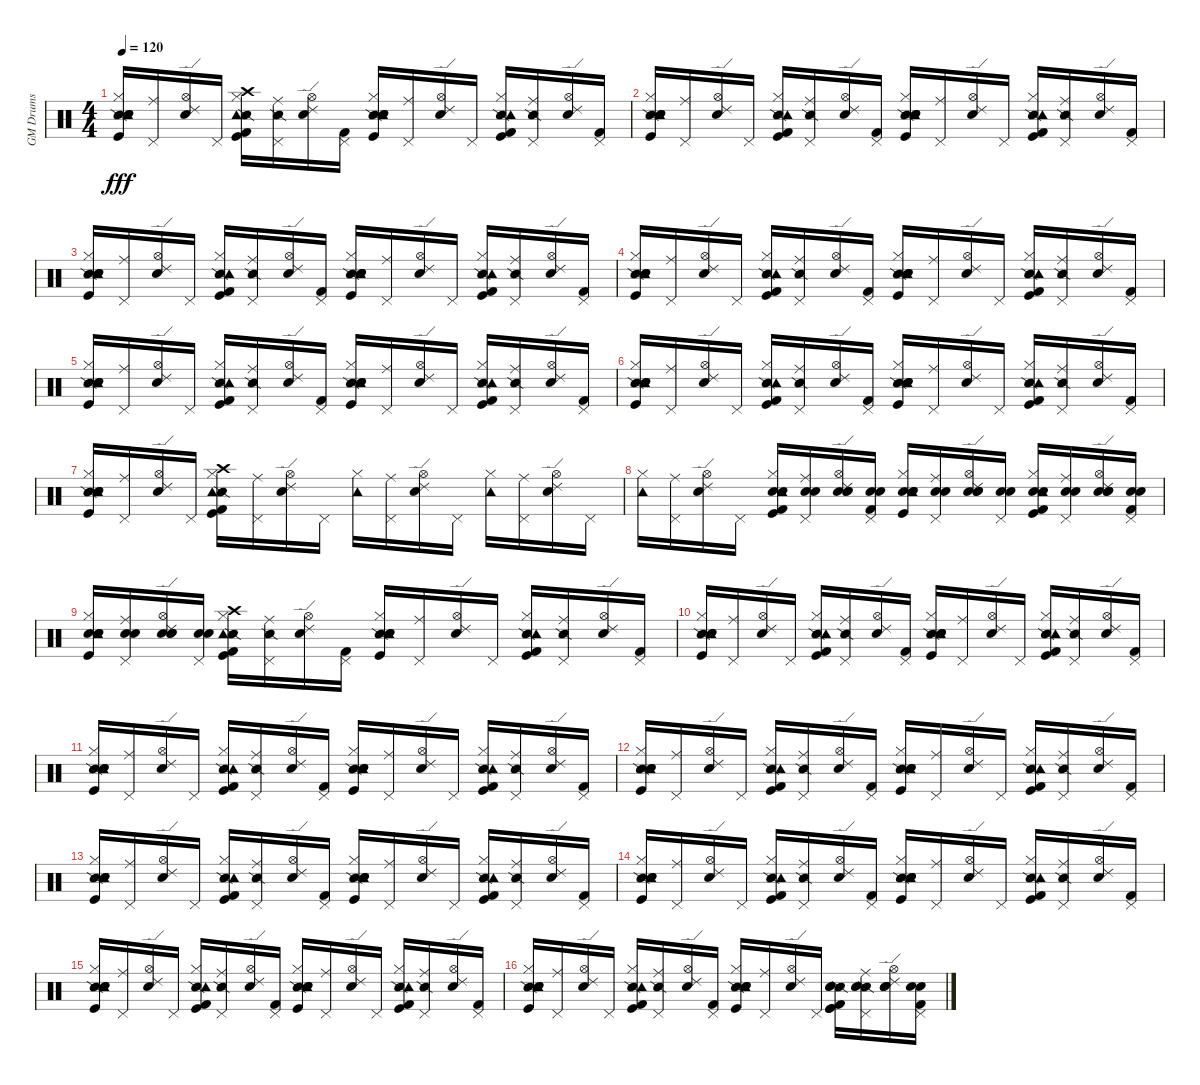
\track ("GM Drums" "GM Drums") {instrument percussion}
\staff {score}
\articulation defaults
\ts (4 4)
\tempo 120
\clef neutral
\ks c
("Snare (side stick) 2" "Kick (hit)" "Snare (hit) 2" "Hand Clap (hit)" "Hi-Hat (closed)" "Tambourine (hit)").16{dy fff} ("Pedal Hi-Hat (hit)" "Ride (middle)").16 ("Metronome (bell)" "Hi-Hat (open)" "Ride (edge) 2").16 "Pedal Hi-Hat (hit)".16 ("Snare (side stick) 2" "Kick (hit)" "Kick (hit) 2" "Hi-Hat (closed)" "Crash high (hit)" "Tambourine (hit)").16 ("Snare (side stick) 2" "Pedal Hi-Hat (hit)" "Ride (middle)").16 ("Metronome (bell)" "Hi-Hat (open)" "Ride (edge) 2").16 ("Kick (hit) 2" "Pedal Hi-Hat (hit)").16 ("Snare (side stick) 2" "Kick (hit)" "Snare (hit) 2" "Hand Clap (hit)" "Hi-Hat (closed)" "Tambourine (hit)").16 ("Pedal Hi-Hat (hit)" "Ride (middle)").16 ("Metronome (bell)" "Hi-Hat (open)" "Ride (edge) 2").16 "Pedal Hi-Hat (hit)".16 ("Snare (side stick) 2" "Kick (hit)" "Kick (hit) 2" "Hi-Hat (closed)" "Tambourine (hit)").16 ("Snare (side stick) 2" "Pedal Hi-Hat (hit)" "Ride (middle)").16 ("Metronome (bell)" "Hi-Hat (open)" "Ride (edge) 2").16 ("Kick (hit) 2" "Pedal Hi-Hat (hit)").16 |
("Snare (side stick) 2" "Kick (hit)" "Snare (hit) 2" "Hand Clap (hit)" "Hi-Hat (closed)" "Tambourine (hit)").16 ("Pedal Hi-Hat (hit)" "Ride (middle)").16 ("Metronome (bell)" "Hi-Hat (open)" "Ride (edge) 2").16 "Pedal Hi-Hat (hit)".16 ("Snare (side stick) 2" "Kick (hit)" "Kick (hit) 2" "Hi-Hat (closed)" "Tambourine (hit)").16 ("Snare (side stick) 2" "Pedal Hi-Hat (hit)" "Ride (middle)").16 ("Metronome (bell)" "Hi-Hat (open)" "Ride (edge) 2").16 ("Kick (hit) 2" "Pedal Hi-Hat (hit)").16 ("Snare (side stick) 2" "Kick (hit)" "Snare (hit) 2" "Hand Clap (hit)" "Hi-Hat (closed)" "Tambourine (hit)").16 ("Pedal Hi-Hat (hit)" "Ride (middle)").16 ("Metronome (bell)" "Hi-Hat (open)" "Ride (edge) 2").16 "Pedal Hi-Hat (hit)".16 ("Snare (side stick) 2" "Kick (hit)" "Kick (hit) 2" "Hi-Hat (closed)" "Tambourine (hit)").16 ("Snare (side stick) 2" "Pedal Hi-Hat (hit)" "Ride (middle)").16 ("Metronome (bell)" "Hi-Hat (open)" "Ride (edge) 2").16 ("Kick (hit) 2" "Pedal Hi-Hat (hit)").16 |
("Snare (side stick) 2" "Kick (hit)" "Snare (hit) 2" "Hand Clap (hit)" "Hi-Hat (closed)" "Tambourine (hit)").16 ("Pedal Hi-Hat (hit)" "Ride (middle)").16 ("Metronome (bell)" "Hi-Hat (open)" "Ride (edge) 2").16 "Pedal Hi-Hat (hit)".16 ("Snare (side stick) 2" "Kick (hit)" "Kick (hit) 2" "Hi-Hat (closed)" "Tambourine (hit)").16 ("Snare (side stick) 2" "Pedal Hi-Hat (hit)" "Ride (middle)").16 ("Metronome (bell)" "Hi-Hat (open)" "Ride (edge) 2").16 ("Kick (hit) 2" "Pedal Hi-Hat (hit)").16 ("Snare (side stick) 2" "Kick (hit)" "Snare (hit) 2" "Hand Clap (hit)" "Hi-Hat (closed)" "Tambourine (hit)").16 ("Pedal Hi-Hat (hit)" "Ride (middle)").16 ("Metronome (bell)" "Hi-Hat (open)" "Ride (edge) 2").16 "Pedal Hi-Hat (hit)".16 ("Snare (side stick) 2" "Kick (hit)" "Kick (hit) 2" "Hi-Hat (closed)" "Tambourine (hit)").16 ("Snare (side stick) 2" "Pedal Hi-Hat (hit)" "Ride (middle)").16 ("Metronome (bell)" "Hi-Hat (open)" "Ride (edge) 2").16 ("Kick (hit) 2" "Pedal Hi-Hat (hit)").16 |
("Snare (side stick) 2" "Kick (hit)" "Snare (hit) 2" "Hand Clap (hit)" "Hi-Hat (closed)" "Tambourine (hit)").16 ("Pedal Hi-Hat (hit)" "Ride (middle)").16 ("Metronome (bell)" "Hi-Hat (open)" "Ride (edge) 2").16 "Pedal Hi-Hat (hit)".16 ("Snare (side stick) 2" "Kick (hit)" "Kick (hit) 2" "Hi-Hat (closed)" "Tambourine (hit)").16 ("Snare (side stick) 2" "Pedal Hi-Hat (hit)" "Ride (middle)").16 ("Metronome (bell)" "Hi-Hat (open)" "Ride (edge) 2").16 ("Kick (hit) 2" "Pedal Hi-Hat (hit)").16 ("Snare (side stick) 2" "Kick (hit)" "Snare (hit) 2" "Hand Clap (hit)" "Hi-Hat (closed)" "Tambourine (hit)").16 ("Pedal Hi-Hat (hit)" "Ride (middle)").16 ("Metronome (bell)" "Hi-Hat (open)" "Ride (edge) 2").16 "Pedal Hi-Hat (hit)".16 ("Snare (side stick) 2" "Kick (hit)" "Kick (hit) 2" "Hi-Hat (closed)" "Tambourine (hit)").16 ("Snare (side stick) 2" "Pedal Hi-Hat (hit)" "Ride (middle)").16 ("Metronome (bell)" "Hi-Hat (open)" "Ride (edge) 2").16 ("Kick (hit) 2" "Pedal Hi-Hat (hit)").16 |
("Snare (side stick) 2" "Kick (hit)" "Snare (hit) 2" "Hand Clap (hit)" "Hi-Hat (closed)" "Tambourine (hit)").16 ("Pedal Hi-Hat (hit)" "Ride (middle)").16 ("Metronome (bell)" "Hi-Hat (open)" "Ride (edge) 2").16 "Pedal Hi-Hat (hit)".16 ("Snare (side stick) 2" "Kick (hit)" "Kick (hit) 2" "Hi-Hat (closed)" "Tambourine (hit)").16 ("Snare (side stick) 2" "Pedal Hi-Hat (hit)" "Ride (middle)").16 ("Metronome (bell)" "Hi-Hat (open)" "Ride (edge) 2").16 ("Kick (hit) 2" "Pedal Hi-Hat (hit)").16 ("Snare (side stick) 2" "Kick (hit)" "Snare (hit) 2" "Hand Clap (hit)" "Hi-Hat (closed)" "Tambourine (hit)").16 ("Pedal Hi-Hat (hit)" "Ride (middle)").16 ("Metronome (bell)" "Hi-Hat (open)" "Ride (edge) 2").16 "Pedal Hi-Hat (hit)".16 ("Snare (side stick) 2" "Kick (hit)" "Kick (hit) 2" "Hi-Hat (closed)" "Tambourine (hit)").16 ("Snare (side stick) 2" "Pedal Hi-Hat (hit)" "Ride (middle)").16 ("Metronome (bell)" "Hi-Hat (open)" "Ride (edge) 2").16 ("Kick (hit) 2" "Pedal Hi-Hat (hit)").16 |
("Snare (side stick) 2" "Kick (hit)" "Snare (hit) 2" "Hand Clap (hit)" "Hi-Hat (closed)" "Tambourine (hit)").16 ("Pedal Hi-Hat (hit)" "Ride (middle)").16 ("Metronome (bell)" "Hi-Hat (open)" "Ride (edge) 2").16 "Pedal Hi-Hat (hit)".16 ("Snare (side stick) 2" "Kick (hit)" "Kick (hit) 2" "Hi-Hat (closed)" "Tambourine (hit)").16 ("Snare (side stick) 2" "Pedal Hi-Hat (hit)" "Ride (middle)").16 ("Metronome (bell)" "Hi-Hat (open)" "Ride (edge) 2").16 ("Kick (hit) 2" "Pedal Hi-Hat (hit)").16 ("Snare (side stick) 2" "Kick (hit)" "Snare (hit) 2" "Hand Clap (hit)" "Hi-Hat (closed)" "Tambourine (hit)").16 ("Pedal Hi-Hat (hit)" "Ride (middle)").16 ("Metronome (bell)" "Hi-Hat (open)" "Ride (edge) 2").16 "Pedal Hi-Hat (hit)".16 ("Snare (side stick) 2" "Kick (hit)" "Kick (hit) 2" "Hi-Hat (closed)" "Tambourine (hit)").16 ("Snare (side stick) 2" "Pedal Hi-Hat (hit)" "Ride (middle)").16 ("Metronome (bell)" "Hi-Hat (open)" "Ride (edge) 2").16 ("Kick (hit) 2" "Pedal Hi-Hat (hit)").16 |
("Snare (side stick) 2" "Kick (hit)" "Snare (hit) 2" "Hand Clap (hit)" "Hi-Hat (closed)" "Tambourine (hit)").16 ("Pedal Hi-Hat (hit)" "Ride (middle)").16 ("Metronome (bell)" "Hi-Hat (open)" "Ride (edge) 2").16 "Pedal Hi-Hat (hit)".16 ("Snare (side stick) 2" "Kick (hit)" "Kick (hit) 2" "Hi-Hat (closed)" "Crash high (hit)" "Tambourine (hit)").16 ("Pedal Hi-Hat (hit)" "Ride (middle)").16 ("Metronome (bell)" "Hi-Hat (open)" "Ride (edge) 2").16 "Pedal Hi-Hat (hit)".16 ("Hi-Hat (closed)" "Tambourine (hit)").16 ("Pedal Hi-Hat (hit)" "Ride (middle)").16 ("Metronome (bell)" "Hi-Hat (open)" "Ride (edge) 2").16 "Pedal Hi-Hat (hit)".16 ("Hi-Hat (closed)" "Tambourine (hit)").16 ("Pedal Hi-Hat (hit)" "Ride (middle)").16 ("Metronome (bell)" "Hi-Hat (open)" "Ride (edge) 2").16 "Pedal Hi-Hat (hit)".16 |
("Hi-Hat (closed)" "Tambourine (hit)").16 ("Pedal Hi-Hat (hit)" "Ride (middle)").16 ("Metronome (bell)" "Hi-Hat (open)" "Ride (edge) 2").16 "Pedal Hi-Hat (hit)".16 ("Kick (hit)" "Kick (hit) 2" "Snare (hit) 2" "Electric Snare (hit)" "Hi-Hat (closed)" "Tambourine (hit)").16 ("Snare (hit) 2" "Electric Snare (hit)" "Pedal Hi-Hat (hit)" "Ride (middle)").16 ("Metronome (bell)" "Snare (hit) 2" "Electric Snare (hit)" "Hi-Hat (open)" "Ride (edge) 2").16 ("Kick (hit) 2" "Snare (hit) 2" "Electric Snare (hit)" "Pedal Hi-Hat (hit)").16 ("Kick (hit)" "Snare (hit) 2" "Hand Clap (hit)" "Electric Snare (hit)" "Hi-Hat (closed)" "Tambourine (hit)").16 ("Snare (hit) 2" "Electric Snare (hit)" "Pedal Hi-Hat (hit)" "Ride (middle)").16 ("Metronome (bell)" "Snare (hit) 2" "Electric Snare (hit)" "Hi-Hat (open)" "Ride (edge) 2").16 ("Snare (hit) 2" "Electric Snare (hit)" "Pedal Hi-Hat (hit)").16 ("Kick (hit)" "Kick (hit) 2" "Snare (hit) 2" "Electric Snare (hit)" "Hi-Hat (closed)" "Tambourine (hit)").16 ("Snare (hit) 2" "Electric Snare (hit)" "Pedal Hi-Hat (hit)" "Ride (middle)").16 ("Metronome (bell)" "Snare (hit) 2" "Electric Snare (hit)" "Hi-Hat (open)" "Ride (edge) 2").16 ("Kick (hit) 2" "Snare (hit) 2" "Electric Snare (hit)" "Pedal Hi-Hat (hit)").16 |
("Kick (hit)" "Snare (hit) 2" "Hand Clap (hit)" "Electric Snare (hit)" "Hi-Hat (closed)" "Tambourine (hit)").16 ("Snare (hit) 2" "Electric Snare (hit)" "Pedal Hi-Hat (hit)" "Ride (middle)").16 ("Metronome (bell)" "Snare (hit) 2" "Electric Snare (hit)" "Hi-Hat (open)" "Ride (edge) 2").16 ("Snare (hit) 2" "Electric Snare (hit)" "Pedal Hi-Hat (hit)").16 ("Snare (side stick) 2" "Kick (hit)" "Kick (hit) 2" "Hi-Hat (closed)" "Crash high (hit)" "Tambourine (hit)").16 ("Snare (side stick) 2" "Pedal Hi-Hat (hit)" "Ride (middle)").16 ("Metronome (bell)" "Hi-Hat (open)" "Ride (edge) 2").16 ("Kick (hit) 2" "Pedal Hi-Hat (hit)").16 ("Snare (side stick) 2" "Kick (hit)" "Snare (hit) 2" "Hand Clap (hit)" "Hi-Hat (closed)" "Tambourine (hit)").16 ("Pedal Hi-Hat (hit)" "Ride (middle)").16 ("Metronome (bell)" "Hi-Hat (open)" "Ride (edge) 2").16 "Pedal Hi-Hat (hit)".16 ("Snare (side stick) 2" "Kick (hit)" "Kick (hit) 2" "Hi-Hat (closed)" "Tambourine (hit)").16 ("Snare (side stick) 2" "Pedal Hi-Hat (hit)" "Ride (middle)").16 ("Metronome (bell)" "Hi-Hat (open)" "Ride (edge) 2").16 ("Kick (hit) 2" "Pedal Hi-Hat (hit)").16 |
("Snare (side stick) 2" "Kick (hit)" "Snare (hit) 2" "Hand Clap (hit)" "Hi-Hat (closed)" "Tambourine (hit)").16 ("Pedal Hi-Hat (hit)" "Ride (middle)").16 ("Metronome (bell)" "Hi-Hat (open)" "Ride (edge) 2").16 "Pedal Hi-Hat (hit)".16 ("Snare (side stick) 2" "Kick (hit)" "Kick (hit) 2" "Hi-Hat (closed)" "Tambourine (hit)").16 ("Snare (side stick) 2" "Pedal Hi-Hat (hit)" "Ride (middle)").16 ("Metronome (bell)" "Hi-Hat (open)" "Ride (edge) 2").16 ("Kick (hit) 2" "Pedal Hi-Hat (hit)").16 ("Snare (side stick) 2" "Kick (hit)" "Snare (hit) 2" "Hand Clap (hit)" "Hi-Hat (closed)" "Tambourine (hit)").16 ("Pedal Hi-Hat (hit)" "Ride (middle)").16 ("Metronome (bell)" "Hi-Hat (open)" "Ride (edge) 2").16 "Pedal Hi-Hat (hit)".16 ("Snare (side stick) 2" "Kick (hit)" "Kick (hit) 2" "Hi-Hat (closed)" "Tambourine (hit)").16 ("Snare (side stick) 2" "Pedal Hi-Hat (hit)" "Ride (middle)").16 ("Metronome (bell)" "Hi-Hat (open)" "Ride (edge) 2").16 ("Kick (hit) 2" "Pedal Hi-Hat (hit)").16 |
("Snare (side stick) 2" "Kick (hit)" "Snare (hit) 2" "Hand Clap (hit)" "Hi-Hat (closed)" "Tambourine (hit)").16 ("Pedal Hi-Hat (hit)" "Ride (middle)").16 ("Metronome (bell)" "Hi-Hat (open)" "Ride (edge) 2").16 "Pedal Hi-Hat (hit)".16 ("Snare (side stick) 2" "Kick (hit)" "Kick (hit) 2" "Hi-Hat (closed)" "Tambourine (hit)").16 ("Snare (side stick) 2" "Pedal Hi-Hat (hit)" "Ride (middle)").16 ("Metronome (bell)" "Hi-Hat (open)" "Ride (edge) 2").16 ("Kick (hit) 2" "Pedal Hi-Hat (hit)").16 ("Snare (side stick) 2" "Kick (hit)" "Snare (hit) 2" "Hand Clap (hit)" "Hi-Hat (closed)" "Tambourine (hit)").16 ("Pedal Hi-Hat (hit)" "Ride (middle)").16 ("Metronome (bell)" "Hi-Hat (open)" "Ride (edge) 2").16 "Pedal Hi-Hat (hit)".16 ("Snare (side stick) 2" "Kick (hit)" "Kick (hit) 2" "Hi-Hat (closed)" "Tambourine (hit)").16 ("Snare (side stick) 2" "Pedal Hi-Hat (hit)" "Ride (middle)").16 ("Metronome (bell)" "Hi-Hat (open)" "Ride (edge) 2").16 ("Kick (hit) 2" "Pedal Hi-Hat (hit)").16 |
("Snare (side stick) 2" "Kick (hit)" "Snare (hit) 2" "Hand Clap (hit)" "Hi-Hat (closed)" "Tambourine (hit)").16 ("Pedal Hi-Hat (hit)" "Ride (middle)").16 ("Metronome (bell)" "Hi-Hat (open)" "Ride (edge) 2").16 "Pedal Hi-Hat (hit)".16 ("Snare (side stick) 2" "Kick (hit)" "Kick (hit) 2" "Hi-Hat (closed)" "Tambourine (hit)").16 ("Snare (side stick) 2" "Pedal Hi-Hat (hit)" "Ride (middle)").16 ("Metronome (bell)" "Hi-Hat (open)" "Ride (edge) 2").16 ("Kick (hit) 2" "Pedal Hi-Hat (hit)").16 ("Snare (side stick) 2" "Kick (hit)" "Snare (hit) 2" "Hand Clap (hit)" "Hi-Hat (closed)" "Tambourine (hit)").16 ("Pedal Hi-Hat (hit)" "Ride (middle)").16 ("Metronome (bell)" "Hi-Hat (open)" "Ride (edge) 2").16 "Pedal Hi-Hat (hit)".16 ("Snare (side stick) 2" "Kick (hit)" "Kick (hit) 2" "Hi-Hat (closed)" "Tambourine (hit)").16 ("Snare (side stick) 2" "Pedal Hi-Hat (hit)" "Ride (middle)").16 ("Metronome (bell)" "Hi-Hat (open)" "Ride (edge) 2").16 ("Kick (hit) 2" "Pedal Hi-Hat (hit)").16 |
("Snare (side stick) 2" "Kick (hit)" "Snare (hit) 2" "Hand Clap (hit)" "Hi-Hat (closed)" "Tambourine (hit)").16 ("Pedal Hi-Hat (hit)" "Ride (middle)").16 ("Metronome (bell)" "Hi-Hat (open)" "Ride (edge) 2").16 "Pedal Hi-Hat (hit)".16 ("Snare (side stick) 2" "Kick (hit)" "Kick (hit) 2" "Hi-Hat (closed)" "Tambourine (hit)").16 ("Snare (side stick) 2" "Pedal Hi-Hat (hit)" "Ride (middle)").16 ("Metronome (bell)" "Hi-Hat (open)" "Ride (edge) 2").16 ("Kick (hit) 2" "Pedal Hi-Hat (hit)").16 ("Snare (side stick) 2" "Kick (hit)" "Snare (hit) 2" "Hand Clap (hit)" "Hi-Hat (closed)" "Tambourine (hit)").16 ("Pedal Hi-Hat (hit)" "Ride (middle)").16 ("Metronome (bell)" "Hi-Hat (open)" "Ride (edge) 2").16 "Pedal Hi-Hat (hit)".16 ("Snare (side stick) 2" "Kick (hit)" "Kick (hit) 2" "Hi-Hat (closed)" "Tambourine (hit)").16 ("Snare (side stick) 2" "Pedal Hi-Hat (hit)" "Ride (middle)").16 ("Metronome (bell)" "Hi-Hat (open)" "Ride (edge) 2").16 ("Kick (hit) 2" "Pedal Hi-Hat (hit)").16 |
("Snare (side stick) 2" "Kick (hit)" "Snare (hit) 2" "Hand Clap (hit)" "Hi-Hat (closed)" "Tambourine (hit)").16 ("Pedal Hi-Hat (hit)" "Ride (middle)").16 ("Metronome (bell)" "Hi-Hat (open)" "Ride (edge) 2").16 "Pedal Hi-Hat (hit)".16 ("Snare (side stick) 2" "Kick (hit)" "Kick (hit) 2" "Hi-Hat (closed)" "Tambourine (hit)").16 ("Snare (side stick) 2" "Pedal Hi-Hat (hit)" "Ride (middle)").16 ("Metronome (bell)" "Hi-Hat (open)" "Ride (edge) 2").16 ("Kick (hit) 2" "Pedal Hi-Hat (hit)").16 ("Snare (side stick) 2" "Kick (hit)" "Snare (hit) 2" "Hand Clap (hit)" "Hi-Hat (closed)" "Tambourine (hit)").16 ("Pedal Hi-Hat (hit)" "Ride (middle)").16 ("Metronome (bell)" "Hi-Hat (open)" "Ride (edge) 2").16 "Pedal Hi-Hat (hit)".16 ("Snare (side stick) 2" "Kick (hit)" "Kick (hit) 2" "Hi-Hat (closed)" "Tambourine (hit)").16 ("Snare (side stick) 2" "Pedal Hi-Hat (hit)" "Ride (middle)").16 ("Metronome (bell)" "Hi-Hat (open)" "Ride (edge) 2").16 ("Kick (hit) 2" "Pedal Hi-Hat (hit)").16 |
("Snare (side stick) 2" "Kick (hit)" "Snare (hit) 2" "Hand Clap (hit)" "Hi-Hat (closed)" "Tambourine (hit)").16 ("Pedal Hi-Hat (hit)" "Ride (middle)").16 ("Metronome (bell)" "Hi-Hat (open)" "Ride (edge) 2").16 "Pedal Hi-Hat (hit)".16 ("Snare (side stick) 2" "Kick (hit)" "Kick (hit) 2" "Hi-Hat (closed)" "Tambourine (hit)").16 ("Snare (side stick) 2" "Pedal Hi-Hat (hit)" "Ride (middle)").16 ("Metronome (bell)" "Hi-Hat (open)" "Ride (edge) 2").16 ("Kick (hit) 2" "Pedal Hi-Hat (hit)").16 ("Snare (side stick) 2" "Kick (hit)" "Snare (hit) 2" "Hand Clap (hit)" "Hi-Hat (closed)" "Tambourine (hit)").16 ("Pedal Hi-Hat (hit)" "Ride (middle)").16 ("Metronome (bell)" "Hi-Hat (open)" "Ride (edge) 2").16 "Pedal Hi-Hat (hit)".16 ("Snare (side stick) 2" "Kick (hit)" "Kick (hit) 2" "Hi-Hat (closed)" "Tambourine (hit)").16 ("Snare (side stick) 2" "Pedal Hi-Hat (hit)" "Ride (middle)").16 ("Metronome (bell)" "Hi-Hat (open)" "Ride (edge) 2").16 ("Kick (hit) 2" "Pedal Hi-Hat (hit)").16 |
("Snare (side stick) 2" "Kick (hit)" "Snare (hit) 2" "Hand Clap (hit)" "Hi-Hat (closed)" "Tambourine (hit)").16 ("Pedal Hi-Hat (hit)" "Ride (middle)").16 ("Metronome (bell)" "Hi-Hat (open)" "Ride (edge) 2").16 "Pedal Hi-Hat (hit)".16 ("Snare (side stick) 2" "Kick (hit)" "Kick (hit) 2" "Hi-Hat (closed)" "Tambourine (hit)").16 ("Snare (side stick) 2" "Pedal Hi-Hat (hit)" "Ride (middle)").16 ("Metronome (bell)" "Hi-Hat (open)" "Ride (edge) 2").16 ("Kick (hit) 2" "Pedal Hi-Hat (hit)").16 ("Snare (side stick) 2" "Kick (hit)" "Snare (hit) 2" "Hand Clap (hit)" "Hi-Hat (closed)" "Tambourine (hit)").16 ("Pedal Hi-Hat (hit)" "Ride (middle)").16 ("Metronome (bell)" "Hi-Hat (open)" "Ride (edge) 2").16 "Pedal Hi-Hat (hit)".16 ("Snare (side stick) 2" "Kick (hit)" "Kick (hit)" "Kick (hit) 2" "Snare (hit) 2" "Electric Snare (hit)").16 ("Snare (side stick) 2" "Snare (hit) 2" "Electric Snare (hit)" "Pedal Hi-Hat (hit)" "Ride (middle)").16 ("Metronome (bell)" "Snare (hit) 2" "Electric Snare (hit)" "Hi-Hat (open)" "Ride (edge) 2").16 ("Kick (hit) 2" "Snare (hit) 2" "Electric Snare (hit)" "Pedal Hi-Hat (hit)").16
